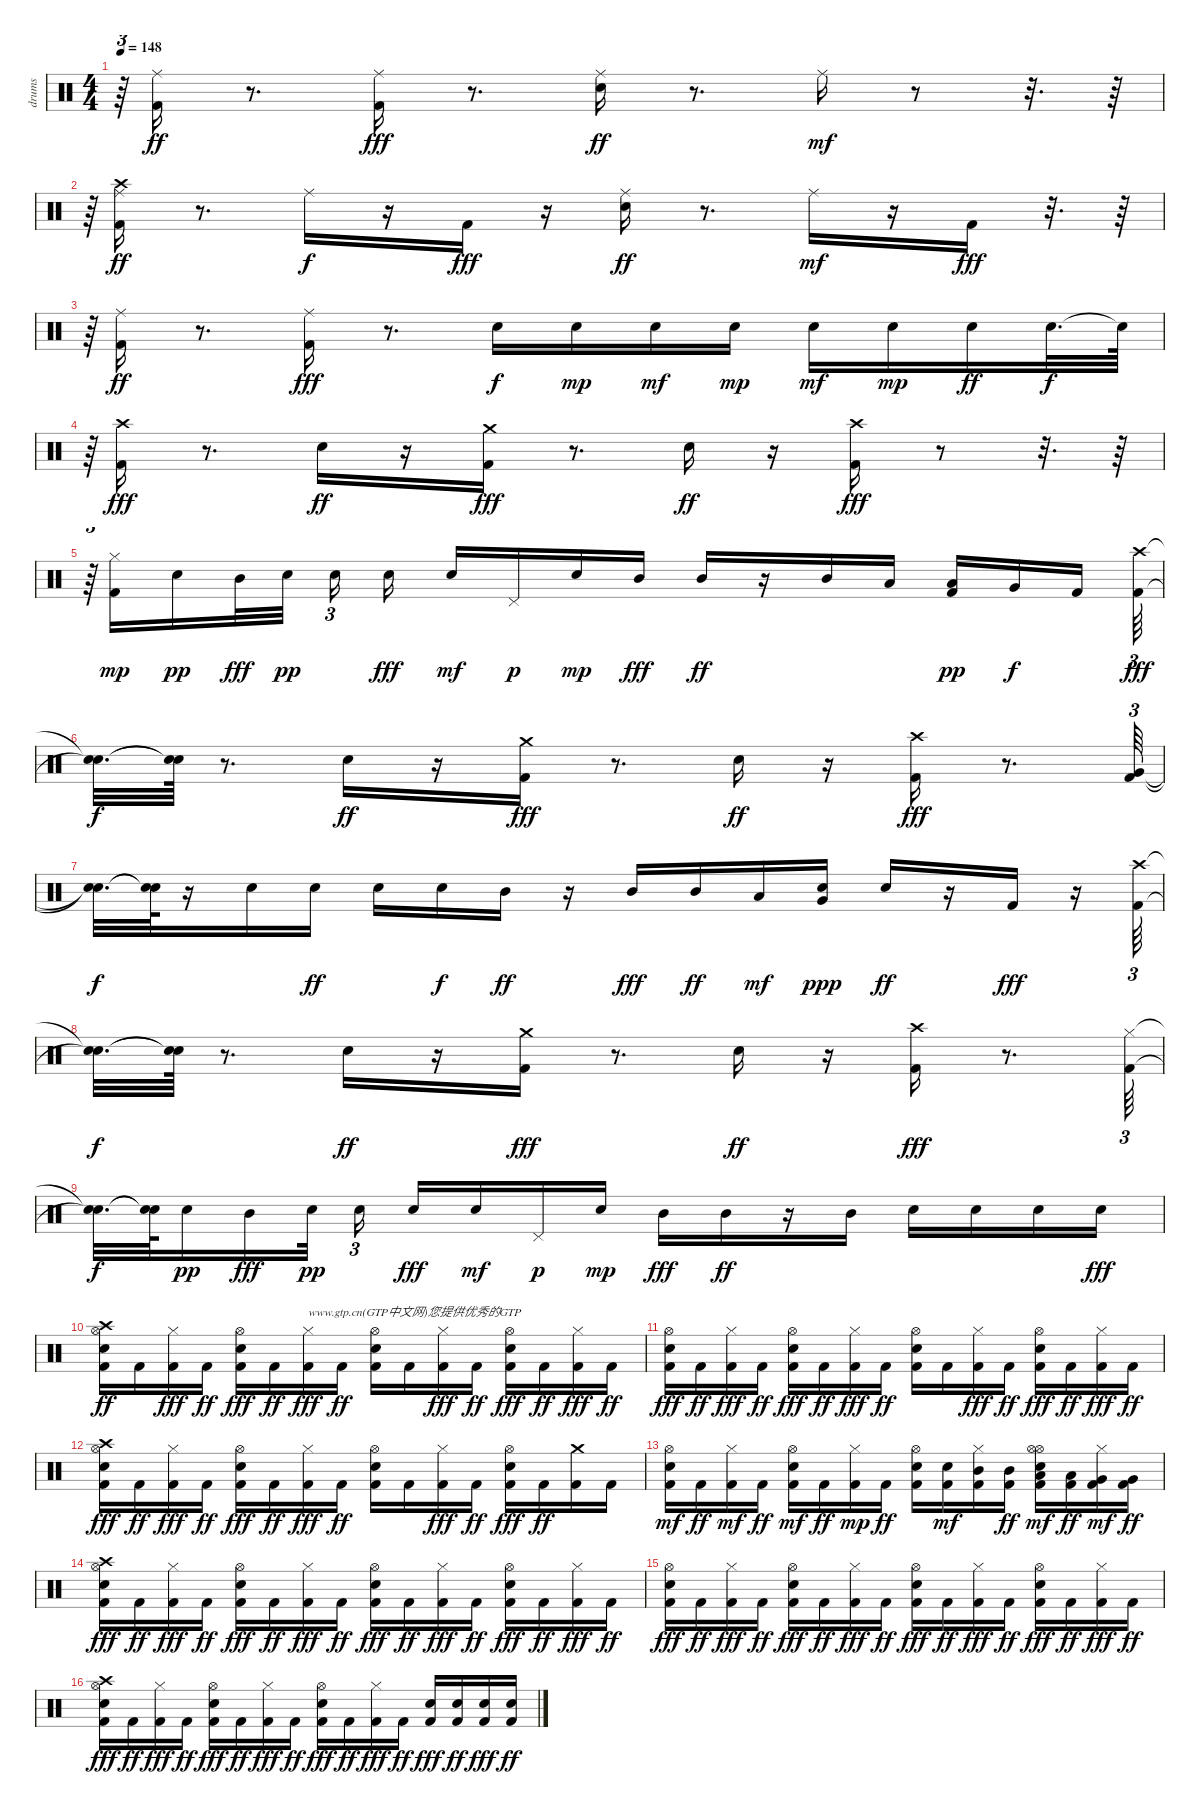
\track ("drums" "drums") {instrument percussion}
\staff {score}
\articulation defaults
\ts (4 4)
\tempo 148
\clef neutral
\ks c
r.64{tu (3 2) dy mf} ("Kick (hit) 2" "Ride (middle)").16{dy ff} r.8{d} ("Kick (hit) 2" "Ride (middle)").16{dy fff} r.8{d} ("Electric Snare (hit)" "Ride (middle)").16{dy ff} r.8{d} "Ride (middle)".16{dy mf} r.8 r.32{d} r.64 |
r.64{tu (3 2)} ("Crash high (hit)" "Kick (hit) 2" "Ride (middle)").16{dy ff} r.8{d} "Ride (middle)".16{dy f} r.16 "Kick (hit) 2".16{dy fff} r.16 ("Electric Snare (hit)" "Ride (middle)").16{dy ff} r.8{d} "Ride (middle)".16{dy mf} r.16 "Kick (hit) 2".16{dy fff} r.32{d} r.64 |
r.64{tu (3 2)} ("Kick (hit) 2" "Ride (middle)").16{dy ff} r.8{d} ("Kick (hit) 2" "Ride (middle)").16{dy fff} r.8{d} "Electric Snare (hit)".16{dy f} "Electric Snare (hit)".16{dy mp} "Electric Snare (hit)".16{dy mf} "Electric Snare (hit)".16{dy mp} "Electric Snare (hit)".16{dy mf} "Electric Snare (hit)".16{dy mp} "Electric Snare (hit)".16{dy ff} "Electric Snare (hit)".32{d dy f} "Snare (hit)"{t}.64 |
r.64{tu (3 2)} ("Crash high (hit)" "Kick (hit) 2").16{dy fff} r.8{d} "Electric Snare (hit)".16{dy ff} r.16 ("Kick (hit) 2" "Crash medium (hit)").16{dy fff} r.8{d} "Electric Snare (hit)".16{dy ff} r.16 ("Crash high (hit)" "Kick (hit) 2").16{dy fff} r.8 r.32{d} r.64 |
r.64{tu (3 2)} ("Kick (hit) 2" "Hi-Hat (closed)").16{dy mp} "Snare (hit) 2".16{dy pp} "Mid Tom (hit)".32{dy fff} "Snare (hit) 2".32{dy pp beam splitsecondary} "Snare (hit) 2".16{tu (3 2)} "Electric Snare (hit)".16{dy fff} "Electric Snare (hit)".16{dy mf} "Pedal Hi-Hat (hit)".16{dy p} "Snare (hit) 2".16{dy mp} "Mid Tom (hit)".16{dy fff} "Mid Tom (hit)".16{dy ff} r.16 "Mid Tom (hit)".16 "Low Tom (hit)".16 ("Low Tom (hit)" "Kick (hit) 2").16{dy pp} "Very Low Tom (hit)".16{dy f} "Kick (hit) 2".16{beam splitsecondary} ("Crash high (hit)" "Kick (hit) 2").64{tu (3 2) dy fff} |
("Snare (hit)"{t} "Snare (hit)"{t}).32{d dy f} ("Snare (hit)"{t} "Snare (hit)"{t}).64 r.8{d} "Electric Snare (hit)".16{dy ff} r.16 ("Kick (hit) 2" "Crash medium (hit)").16{dy fff} r.8{d} "Electric Snare (hit)".16{dy ff} r.16 ("Crash high (hit)" "Kick (hit) 2").16{dy fff} r.8{d} ("Very Low Tom (hit)" "Kick (hit) 2").64{tu (3 2)} |
("Snare (hit)"{t} "Snare (hit)"{t}).32{d dy f} ("Snare (hit)"{t} "Snare (hit)"{t}).64 r.16 "Electric Snare (hit)".16 "Snare (hit) 2".16{dy ff} "Electric Snare (hit)".16 "Electric Snare (hit)".16{dy f} "Mid Tom (hit)".16{dy ff} r.16 "Mid Tom (hit)".16{dy fff} "Mid Tom (hit)".16{dy ff} "Low Tom (hit)".16{dy mf} ("Very Low Tom (hit)" "Electric Snare (hit)").16{dy ppp} "Electric Snare (hit)".16{dy ff} r.16 "Kick (hit) 2".16{dy fff} r.16 ("Crash high (hit)" "Kick (hit) 2").64{tu (3 2)} |
("Snare (hit)"{t} "Snare (hit)"{t}).32{d dy f} ("Snare (hit)"{t} "Snare (hit)"{t}).64 r.8{d} "Electric Snare (hit)".16{dy ff} r.16 ("Kick (hit) 2" "Crash medium (hit)").16{dy fff} r.8{d} "Electric Snare (hit)".16{dy ff} r.16 ("Crash high (hit)" "Kick (hit) 2").16{dy fff} r.8{d} ("Hi-Hat (closed)" "Kick (hit) 2").64{tu (3 2)} |
("Snare (hit)"{t} "Snare (hit)"{t}).32{d dy f} ("Snare (hit)"{t} "Snare (hit)"{t}).64 "Snare (hit) 2".16{dy pp} "Mid Tom (hit)".16{dy fff} "Snare (hit) 2".32{dy pp beam splitsecondary} "Snare (hit) 2".16{tu (3 2)} "Electric Snare (hit)".16{dy fff} "Electric Snare (hit)".16{dy mf} "Pedal Hi-Hat (hit)".16{dy p} "Snare (hit) 2".16{dy mp} "Mid Tom (hit)".16{dy fff} "Mid Tom (hit)".16{dy ff} r.16 "Mid Tom (hit)".16 "Electric Snare (hit)".16 "Electric Snare (hit)".16 "Electric Snare (hit)".16 "Electric Snare (hit)".16{dy fff} |
("Hi-Hat (open)" "Crash high (hit)" "Kick (hit) 2" "Electric Snare (hit)").16{dy ff} "Kick (hit) 2".16 ("Hi-Hat (closed)" "Kick (hit) 2").16{dy fff} "Kick (hit) 2".16{dy ff} ("Hi-Hat (open)" "Electric Snare (hit)" "Kick (hit) 2").16{dy fff} "Kick (hit) 2".16{dy ff} ("Hi-Hat (closed)" "Kick (hit) 2").16{txt "www.gtp.cn(GTP中文网)您提供优秀的GTP" dy fff} "Kick (hit) 2".16{dy ff} ("Hi-Hat (open)" "Kick (hit) 2" "Electric Snare (hit)").16 "Kick (hit) 2".16 ("Hi-Hat (closed)" "Kick (hit) 2").16{dy fff} "Kick (hit) 2".16{dy ff} ("Hi-Hat (open)" "Electric Snare (hit)" "Kick (hit) 2").16{dy fff} "Kick (hit) 2".16{dy ff} ("Hi-Hat (closed)" "Kick (hit) 2").16{dy fff} "Kick (hit) 2".16{dy ff} |
("Hi-Hat (open)" "Electric Snare (hit)" "Kick (hit) 2").16{dy fff} "Kick (hit) 2".16{dy ff} ("Hi-Hat (closed)" "Kick (hit) 2").16{dy fff} "Kick (hit) 2".16{dy ff} ("Hi-Hat (open)" "Electric Snare (hit)" "Kick (hit) 2").16{dy fff} "Kick (hit) 2".16{dy ff} ("Hi-Hat (closed)" "Kick (hit) 2").16{dy fff} "Kick (hit) 2".16{dy ff} ("Hi-Hat (open)" "Kick (hit) 2" "Electric Snare (hit)").16 "Kick (hit) 2".16 ("Hi-Hat (closed)" "Kick (hit) 2").16{dy fff} "Kick (hit) 2".16{dy ff} ("Hi-Hat (open)" "Electric Snare (hit)" "Kick (hit) 2").16{dy fff} "Kick (hit) 2".16{dy ff} ("Hi-Hat (closed)" "Kick (hit) 2").16{dy fff} "Kick (hit) 2".16{dy ff} |
("Hi-Hat (open)" "Crash high (hit)" "Electric Snare (hit)" "Kick (hit) 2").16{dy fff} "Kick (hit) 2".16{dy ff} ("Hi-Hat (closed)" "Kick (hit) 2").16{dy fff} "Kick (hit) 2".16{dy ff} ("Hi-Hat (open)" "Electric Snare (hit)" "Kick (hit) 2").16{dy fff} "Kick (hit) 2".16{dy ff} ("Hi-Hat (closed)" "Kick (hit) 2").16{dy fff} "Kick (hit) 2".16{dy ff} ("Hi-Hat (open)" "Kick (hit) 2" "Electric Snare (hit)").16 "Kick (hit) 2".16 ("Hi-Hat (closed)" "Kick (hit) 2").16{dy fff} "Kick (hit) 2".16{dy ff} ("Hi-Hat (open)" "Electric Snare (hit)" "Kick (hit) 2").16{dy fff} "Kick (hit) 2".16{dy ff} ("Kick (hit) 2" "Crash medium (hit)").16 "Kick (hit) 2".16 |
("Kick (hit) 2" "Electric Snare (hit)" "Hi-Hat (open)").16{dy mf} "Kick (hit) 2".16{dy ff} ("Kick (hit) 2" "Hi-Hat (closed)").16{dy mf} "Kick (hit) 2".16{dy ff} ("Kick (hit) 2" "Electric Snare (hit)" "Hi-Hat (open)").16{dy mf} "Kick (hit) 2".16{dy ff} ("Kick (hit) 2" "Hi-Hat (closed)").16{dy mp} "Kick (hit) 2".16{dy ff} ("Hi-Hat (open)" "Kick (hit) 2" "Electric Snare (hit)").16 ("Kick (hit) 2" "Snare (hit) 2").16{dy mf} ("Mid Tom (hit)" "Kick (hit) 2" "Hi-Hat (closed)").16 ("Mid Tom (hit)" "Kick (hit) 2").16{dy ff} ("Low Tom (hit)" "Kick (hit) 2" "Electric Snare (hit)" "Hi-Hat (open)" "Hi-Hat (open)").16{dy mf} ("Low Tom (hit)" "Kick (hit) 2").16{dy ff} ("Very Low Tom (hit)" "Kick (hit) 2" "Hi-Hat (closed)").16{dy mf} ("Very Low Tom (hit)" "Kick (hit) 2").16{dy ff} |
("Hi-Hat (open)" "Crash high (hit)" "Electric Snare (hit)" "Kick (hit) 2").16{dy fff} "Kick (hit) 2".16{dy ff} ("Hi-Hat (closed)" "Kick (hit) 2").16{dy fff} "Kick (hit) 2".16{dy ff} ("Hi-Hat (open)" "Electric Snare (hit)" "Kick (hit) 2").16{dy fff} "Kick (hit) 2".16{dy ff} ("Hi-Hat (closed)" "Kick (hit) 2").16{dy fff} "Kick (hit) 2".16{dy ff} ("Hi-Hat (open)" "Electric Snare (hit)" "Kick (hit) 2").16{dy fff} "Kick (hit) 2".16{dy ff} ("Hi-Hat (closed)" "Kick (hit) 2").16{dy fff} "Kick (hit) 2".16{dy ff} ("Hi-Hat (open)" "Electric Snare (hit)" "Kick (hit) 2").16{dy fff} "Kick (hit) 2".16{dy ff} ("Hi-Hat (closed)" "Kick (hit) 2").16{dy fff} "Kick (hit) 2".16{dy ff} |
("Hi-Hat (open)" "Electric Snare (hit)" "Kick (hit) 2").16{dy fff} "Kick (hit) 2".16{dy ff} ("Hi-Hat (closed)" "Kick (hit) 2").16{dy fff} "Kick (hit) 2".16{dy ff} ("Hi-Hat (open)" "Electric Snare (hit)" "Kick (hit) 2").16{dy fff} "Kick (hit) 2".16{dy ff} ("Hi-Hat (closed)" "Kick (hit) 2").16{dy fff} "Kick (hit) 2".16{dy ff} ("Hi-Hat (open)" "Electric Snare (hit)" "Kick (hit) 2").16{dy fff} "Kick (hit) 2".16{dy ff} ("Hi-Hat (closed)" "Kick (hit) 2").16{dy fff} "Kick (hit) 2".16{dy ff} ("Hi-Hat (open)" "Electric Snare (hit)" "Kick (hit) 2").16{dy fff} "Kick (hit) 2".16{dy ff} ("Hi-Hat (closed)" "Kick (hit) 2").16{dy fff} "Kick (hit) 2".16{dy ff} |
("Hi-Hat (open)" "Crash high (hit)" "Electric Snare (hit)" "Kick (hit) 2").16{dy fff} "Kick (hit) 2".16{dy ff} ("Hi-Hat (closed)" "Kick (hit) 2").16{dy fff} "Kick (hit) 2".16{dy ff} ("Hi-Hat (open)" "Electric Snare (hit)" "Kick (hit) 2").16{dy fff} "Kick (hit) 2".16{dy ff} ("Hi-Hat (closed)" "Kick (hit) 2").16{dy fff} "Kick (hit) 2".16{dy ff} ("Hi-Hat (open)" "Electric Snare (hit)" "Kick (hit) 2").16{dy fff} "Kick (hit) 2".16{dy ff} ("Hi-Hat (closed)" "Kick (hit) 2").16{dy fff} "Kick (hit) 2".16{dy ff} ("Electric Snare (hit)" "Kick (hit) 2").16{dy fff} ("Electric Snare (hit)" "Kick (hit) 2").16{dy ff} ("Electric Snare (hit)" "Kick (hit) 2").16{dy fff} ("Electric Snare (hit)" "Kick (hit) 2").16{dy ff}
